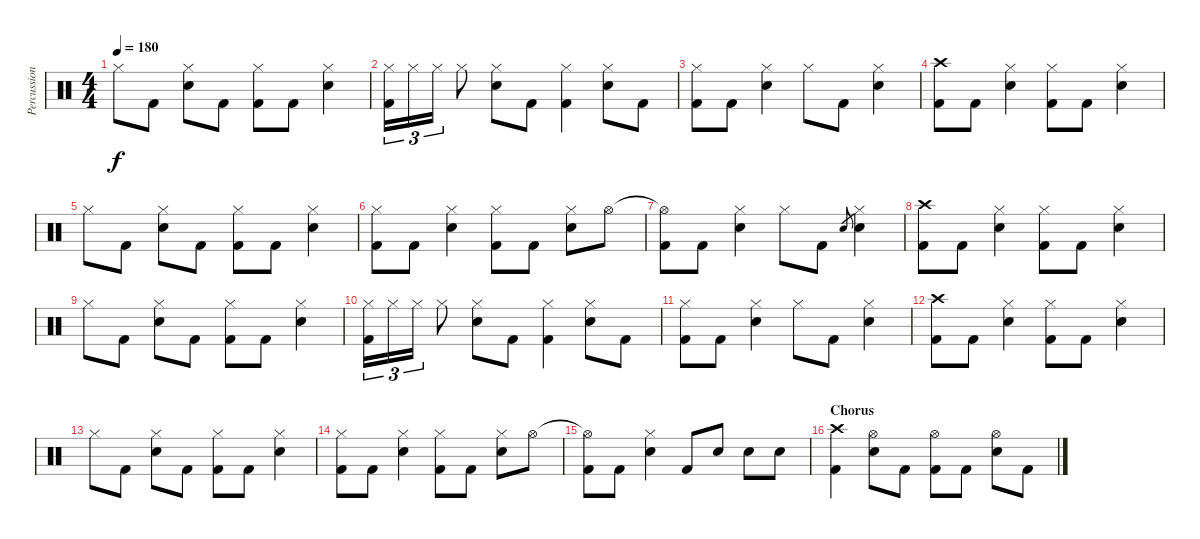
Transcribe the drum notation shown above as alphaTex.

\track ("Percussion" "Percussion") {instrument percussion}
\staff {score}
\articulation defaults
\ts (4 4)
\tempo 180
\clef neutral
\ks c "Hi-Hat (closed)".8{dy f} "Kick (hit) 2".8
("Hi-Hat (closed)" "Electric Snare (hit)").8 "Kick (hit) 2".8 ("Hi-Hat (closed)" "Kick (hit) 2").8 "Kick (hit) 2".8 ("Hi-Hat (closed)" "Electric Snare (hit)").4 |
("Hi-Hat (closed)" "Kick (hit) 2").16{tu (3 2)} "Hi-Hat (closed)".16{tu (3 2)} "Hi-Hat (closed)".16{tu (3 2)} "Hi-Hat (closed)".8 ("Hi-Hat (closed)" "Electric Snare (hit)").8 "Kick (hit) 2".8 ("Hi-Hat (closed)" "Kick (hit) 2").4 ("Hi-Hat (closed)" "Electric Snare (hit)").8 "Kick (hit) 2".8 |
("Hi-Hat (closed)" "Kick (hit) 2").8 "Kick (hit) 2".8 ("Hi-Hat (closed)" "Electric Snare (hit)").4 "Hi-Hat (closed)".8 "Kick (hit) 2".8 ("Hi-Hat (closed)" "Electric Snare (hit)").4 |
("Crash high (hit)" "Kick (hit) 2").8 "Kick (hit) 2".8 ("Hi-Hat (closed)" "Electric Snare (hit)").4 ("Hi-Hat (closed)" "Kick (hit) 2").8 "Kick (hit) 2".8 ("Hi-Hat (closed)" "Electric Snare (hit)").4 |
"Hi-Hat (closed)".8 "Kick (hit) 2".8 ("Hi-Hat (closed)" "Electric Snare (hit)").8 "Kick (hit) 2".8 ("Hi-Hat (closed)" "Kick (hit) 2").8 "Kick (hit) 2".8 ("Hi-Hat (closed)" "Electric Snare (hit)").4 |
("Hi-Hat (closed)" "Kick (hit) 2").8 "Kick (hit) 2".8 ("Hi-Hat (closed)" "Electric Snare (hit)").4 ("Hi-Hat (closed)" "Kick (hit) 2").8 "Kick (hit) 2".8 ("Hi-Hat (closed)" "Electric Snare (hit)").8 "Hi-Hat (open)".8 |
("Hi-Hat (open)"{t} "Kick (hit) 2").8 "Kick (hit) 2".8 ("Hi-Hat (closed)" "Electric Snare (hit)").4 "Hi-Hat (closed)".8 "Kick (hit) 2".8 "Electric Snare (hit)".8{gr} ("Hi-Hat (closed)" "Electric Snare (hit)").4 |
("Crash high (hit)" "Kick (hit) 2").8 "Kick (hit) 2".8 ("Hi-Hat (closed)" "Electric Snare (hit)").4 ("Hi-Hat (closed)" "Kick (hit) 2").8 "Kick (hit) 2".8 ("Hi-Hat (closed)" "Electric Snare (hit)").4 |
"Hi-Hat (closed)".8 "Kick (hit) 2".8 ("Hi-Hat (closed)" "Electric Snare (hit)").8 "Kick (hit) 2".8 ("Hi-Hat (closed)" "Kick (hit) 2").8 "Kick (hit) 2".8 ("Hi-Hat (closed)" "Electric Snare (hit)").4 |
("Hi-Hat (closed)" "Kick (hit) 2").16{tu (3 2)} "Hi-Hat (closed)".16{tu (3 2)} "Hi-Hat (closed)".16{tu (3 2)} "Hi-Hat (closed)".8 ("Hi-Hat (closed)" "Electric Snare (hit)").8 "Kick (hit) 2".8 ("Hi-Hat (closed)" "Kick (hit) 2").4 ("Hi-Hat (closed)" "Electric Snare (hit)").8 "Kick (hit) 2".8 |
("Hi-Hat (closed)" "Kick (hit) 2").8 "Kick (hit) 2".8 ("Hi-Hat (closed)" "Electric Snare (hit)").4 "Hi-Hat (closed)".8 "Kick (hit) 2".8 ("Hi-Hat (closed)" "Electric Snare (hit)").4 |
("Crash high (hit)" "Kick (hit) 2").8 "Kick (hit) 2".8 ("Hi-Hat (closed)" "Electric Snare (hit)").4 ("Hi-Hat (closed)" "Kick (hit) 2").8 "Kick (hit) 2".8 ("Hi-Hat (closed)" "Electric Snare (hit)").4 |
"Hi-Hat (closed)".8 "Kick (hit) 2".8 ("Hi-Hat (closed)" "Electric Snare (hit)").8 "Kick (hit) 2".8 ("Hi-Hat (closed)" "Kick (hit) 2").8 "Kick (hit) 2".8 ("Hi-Hat (closed)" "Electric Snare (hit)").4 |
("Hi-Hat (closed)" "Kick (hit) 2").8 "Kick (hit) 2".8 ("Hi-Hat (closed)" "Electric Snare (hit)").4 ("Hi-Hat (closed)" "Kick (hit) 2").8 "Kick (hit) 2".8 ("Hi-Hat (closed)" "Electric Snare (hit)").8 "Hi-Hat (open)".8 |
("Hi-Hat (open)"{t} "Kick (hit) 2").8 "Kick (hit) 2".8 ("Hi-Hat (closed)" "Electric Snare (hit)").4 "Kick (hit) 2".8 "Electric Snare (hit)".8 "Electric Snare (hit)".8 "Electric Snare (hit)".8 |
\section ("" "Chorus")
("Crash high (hit)" "Kick (hit) 2").4 ("Hi-Hat (open)" "Electric Snare (hit)").8 "Kick (hit) 2".8 ("Hi-Hat (open)" "Kick (hit) 2").8 "Kick (hit) 2".8 ("Hi-Hat (open)" "Electric Snare (hit)").8 "Kick (hit) 2".8
